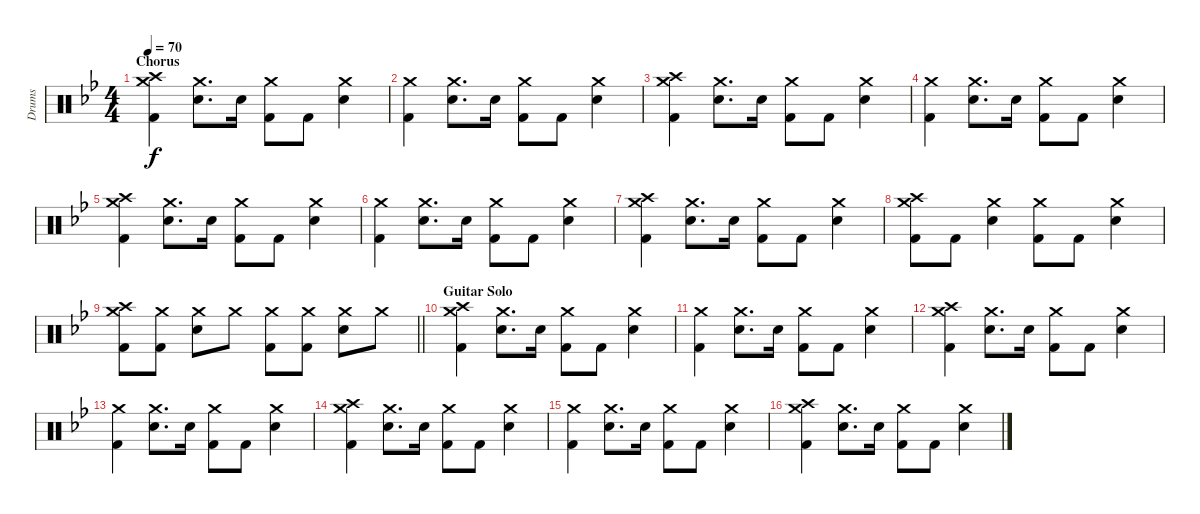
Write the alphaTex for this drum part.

\track ("Drums" "Drums") {instrument percussion}
\staff {score}
\articulation defaults
\ts (4 4)
\section ("" "Chorus")
\tempo 70
\clef neutral
\ks gminor
("Crash medium (hit)" "Crash high (hit)" "Kick (hit) 2").4{dy f} ("Crash medium (hit)" "Snare (hit) 2").8{d} "Snare (hit) 2".16 ("Crash medium (hit)" "Kick (hit) 2").8 "Kick (hit) 2".8 ("Crash medium (hit)" "Snare (hit) 2").4 |
("Crash medium (hit)" "Kick (hit) 2").4 ("Crash medium (hit)" "Snare (hit) 2").8{d} "Snare (hit) 2".16 ("Crash medium (hit)" "Kick (hit) 2").8 "Kick (hit) 2".8 ("Crash medium (hit)" "Snare (hit) 2").4 |
("Crash medium (hit)" "Crash high (hit)" "Kick (hit) 2").4 ("Crash medium (hit)" "Snare (hit) 2").8{d} "Snare (hit) 2".16 ("Crash medium (hit)" "Kick (hit) 2").8 "Kick (hit) 2".8 ("Crash medium (hit)" "Snare (hit) 2").4 |
("Crash medium (hit)" "Kick (hit) 2").4 ("Crash medium (hit)" "Snare (hit) 2").8{d} "Snare (hit) 2".16 ("Crash medium (hit)" "Kick (hit) 2").8 "Kick (hit) 2".8 ("Crash medium (hit)" "Snare (hit) 2").4 |
("Crash medium (hit)" "Crash high (hit)" "Kick (hit) 2").4 ("Crash medium (hit)" "Snare (hit) 2").8{d} "Snare (hit) 2".16 ("Crash medium (hit)" "Kick (hit) 2").8 "Kick (hit) 2".8 ("Crash medium (hit)" "Snare (hit) 2").4 |
("Crash medium (hit)" "Kick (hit) 2").4 ("Crash medium (hit)" "Snare (hit) 2").8{d} "Snare (hit) 2".16 ("Crash medium (hit)" "Kick (hit) 2").8 "Kick (hit) 2".8 ("Crash medium (hit)" "Snare (hit) 2").4 |
("Crash medium (hit)" "Crash high (hit)" "Kick (hit) 2").4 ("Crash medium (hit)" "Snare (hit) 2").8{d} "Snare (hit) 2".16 ("Crash medium (hit)" "Kick (hit) 2").8 "Kick (hit) 2".8 ("Crash medium (hit)" "Snare (hit) 2").4 |
("Crash medium (hit)" "Crash high (hit)" "Kick (hit) 2").8 "Kick (hit) 2".8 ("Crash medium (hit)" "Snare (hit) 2").4 ("Crash medium (hit)" "Kick (hit) 2").8 "Kick (hit) 2".8 ("Crash medium (hit)" "Snare (hit) 2").4 |
\barLineRight lightlight
("Crash medium (hit)" "Crash high (hit)" "Kick (hit) 2").8 ("Crash medium (hit)" "Kick (hit) 2").8 ("Crash medium (hit)" "Snare (hit) 2").8 "Crash medium (hit)".8 ("Crash medium (hit)" "Kick (hit) 2").8 ("Crash medium (hit)" "Kick (hit) 2").8 ("Crash medium (hit)" "Snare (hit) 2").8 "Crash medium (hit)".8 |
\section ("" "Guitar Solo")
("Crash medium (hit)" "Crash high (hit)" "Kick (hit) 2").4 ("Crash medium (hit)" "Snare (hit) 2").8{d} "Snare (hit) 2".16 ("Crash medium (hit)" "Kick (hit) 2").8 "Kick (hit) 2".8 ("Crash medium (hit)" "Snare (hit) 2").4 |
("Crash medium (hit)" "Kick (hit) 2").4 ("Crash medium (hit)" "Snare (hit) 2").8{d} "Snare (hit) 2".16 ("Crash medium (hit)" "Kick (hit) 2").8 "Kick (hit) 2".8 ("Crash medium (hit)" "Snare (hit) 2").4 |
("Crash medium (hit)" "Crash high (hit)" "Kick (hit) 2").4 ("Crash medium (hit)" "Snare (hit) 2").8{d} "Snare (hit) 2".16 ("Crash medium (hit)" "Kick (hit) 2").8 "Kick (hit) 2".8 ("Crash medium (hit)" "Snare (hit) 2").4 |
("Crash medium (hit)" "Kick (hit) 2").4 ("Crash medium (hit)" "Snare (hit) 2").8{d} "Snare (hit) 2".16 ("Crash medium (hit)" "Kick (hit) 2").8 "Kick (hit) 2".8 ("Crash medium (hit)" "Snare (hit) 2").4 |
("Crash medium (hit)" "Crash high (hit)" "Kick (hit) 2").4 ("Crash medium (hit)" "Snare (hit) 2").8{d} "Snare (hit) 2".16 ("Crash medium (hit)" "Kick (hit) 2").8 "Kick (hit) 2".8 ("Crash medium (hit)" "Snare (hit) 2").4 |
("Crash medium (hit)" "Kick (hit) 2").4 ("Crash medium (hit)" "Snare (hit) 2").8{d} "Snare (hit) 2".16 ("Crash medium (hit)" "Kick (hit) 2").8 "Kick (hit) 2".8 ("Crash medium (hit)" "Snare (hit) 2").4 |
("Crash medium (hit)" "Crash high (hit)" "Kick (hit) 2").4 ("Crash medium (hit)" "Snare (hit) 2").8{d} "Snare (hit) 2".16 ("Crash medium (hit)" "Kick (hit) 2").8 "Kick (hit) 2".8 ("Crash medium (hit)" "Snare (hit) 2").4
